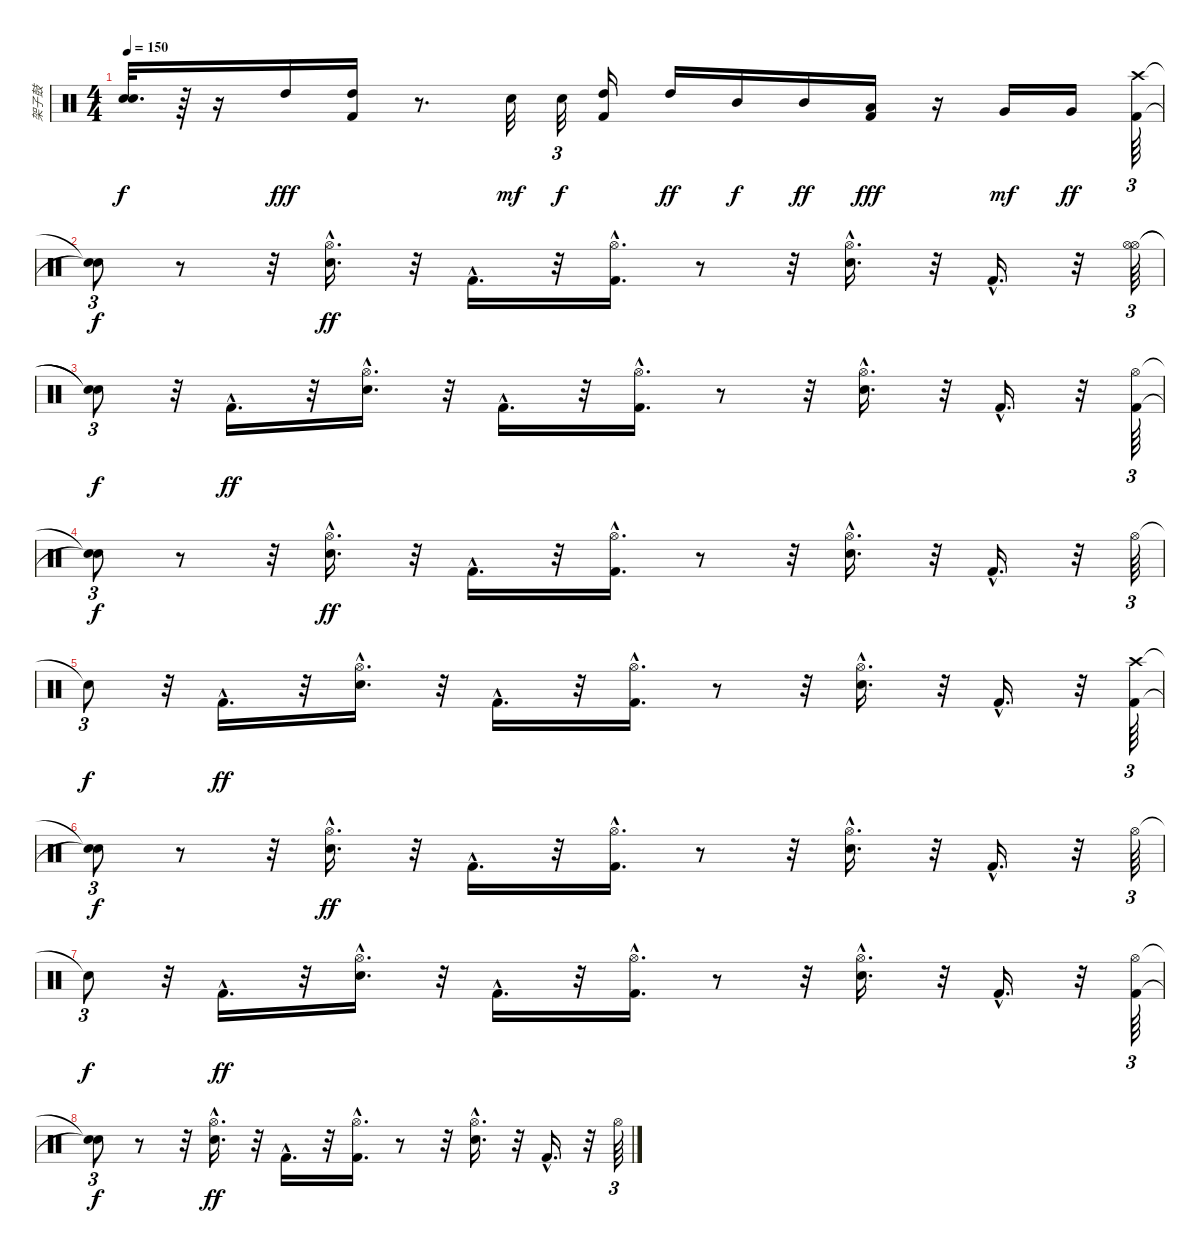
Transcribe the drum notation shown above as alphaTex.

\track ("架子鼓" "架子鼓") {instrument percussion}
\staff {score}
\articulation defaults
\ts (4 4)
\tempo 150
\clef neutral
\ks c
("Snare (hit)"{t} "Snare (hit)"{t}).32{d dy f} r.64 r.16 "High Tom (hit)".16{dy fff} ("Kick (hit) 2" "High Tom (hit)").16 r.8{d} "Snare (hit) 2".32{dy mf} "Snare (hit) 2".32{tu (3 2) dy f} ("High Tom (hit)" "Kick (hit) 2").16 "High Tom (hit)".16{dy ff} "Mid Tom (hit)".16{dy f} "Mid Tom (hit)".16{dy ff} ("Low Tom (hit)" "Kick (hit) 2").16{dy fff} r.16 "Very Low Tom (hit)".16{dy mf} "Very Low Tom (hit)".16{dy ff} ("Kick (hit) 2" "Crash high (hit)").64{tu (3 2)} |
("Snare (hit)"{t} "Snare (hit)"{t}).8{tu (3 2) dy f} r.8 r.32 ("Snare (hit) 2"{hac} "Hi-Hat (open)"{hac}).16{d dy ff} r.32 "Kick (hit) 2"{hac}.16{d} r.32 ("Kick (hit) 2"{hac} "Hi-Hat (open)"{hac}).16{d} r.8 r.32 ("Hi-Hat (open)"{hac} "Snare (hit) 2"{hac}).16{d} r.32 "Kick (hit) 2"{hac}.16{d} r.32 ("Hi-Hat (open)" "Hi-Hat (open)").64{tu (3 2)} |
("Snare (hit)"{t} "Snare (hit)"{t}).8{tu (3 2) dy f} r.32 "Kick (hit) 2"{hac}.16{d dy ff} r.32 ("Hi-Hat (open)"{hac} "Snare (hit) 2"{hac}).16{d} r.32 "Kick (hit) 2"{hac}.16{d} r.32 ("Hi-Hat (open)"{hac} "Kick (hit) 2"{hac}).16{d} r.8 r.32 ("Snare (hit) 2"{hac} "Hi-Hat (open)"{hac}).16{d} r.32 "Kick (hit) 2"{hac}.16{d} r.32 ("Hi-Hat (open)" "Kick (hit) 2").64{tu (3 2)} |
("Snare (hit)"{t} "Snare (hit)"{t}).8{tu (3 2) dy f} r.8 r.32 ("Snare (hit) 2"{hac} "Hi-Hat (open)"{hac}).16{d dy ff} r.32 "Kick (hit) 2"{hac}.16{d} r.32 ("Kick (hit) 2"{hac} "Hi-Hat (open)"{hac}).16{d} r.8 r.32 ("Snare (hit) 2"{hac} "Hi-Hat (open)"{hac}).16{d} r.32 "Kick (hit) 2"{hac}.16{d} r.32 "Hi-Hat (open)".64{tu (3 2)} |
"Snare (hit)"{t}.8{tu (3 2) dy f} r.32 "Kick (hit) 2"{hac}.16{d dy ff} r.32 ("Snare (hit) 2"{hac} "Hi-Hat (open)"{hac}).16{d} r.32 "Kick (hit) 2"{hac}.16{d} r.32 ("Kick (hit) 2"{hac} "Hi-Hat (open)"{hac}).16{d} r.8 r.32 ("Snare (hit) 2"{hac} "Hi-Hat (open)"{hac}).16{d} r.32 "Kick (hit) 2"{hac}.16{d} r.32 ("Kick (hit) 2" "Crash high (hit)").64{tu (3 2)} |
("Snare (hit)"{t} "Snare (hit)"{t}).8{tu (3 2) dy f} r.8 r.32 ("Snare (hit) 2"{hac} "Hi-Hat (open)"{hac}).16{d dy ff} r.32 "Kick (hit) 2"{hac}.16{d} r.32 ("Kick (hit) 2"{hac} "Hi-Hat (open)"{hac}).16{d} r.8 r.32 ("Hi-Hat (open)"{hac} "Snare (hit) 2"{hac}).16{d} r.32 "Kick (hit) 2"{hac}.16{d} r.32 "Hi-Hat (open)".64{tu (3 2)} |
"Snare (hit)"{t}.8{tu (3 2) dy f} r.32 "Kick (hit) 2"{hac}.16{d dy ff} r.32 ("Hi-Hat (open)"{hac} "Snare (hit) 2"{hac}).16{d} r.32 "Kick (hit) 2"{hac}.16{d} r.32 ("Hi-Hat (open)"{hac} "Kick (hit) 2"{hac}).16{d} r.8 r.32 ("Snare (hit) 2"{hac} "Hi-Hat (open)"{hac}).16{d} r.32 "Kick (hit) 2"{hac}.16{d} r.32 ("Hi-Hat (open)" "Kick (hit) 2").64{tu (3 2)} |
("Snare (hit)"{t} "Snare (hit)"{t}).8{tu (3 2) dy f} r.8 r.32 ("Snare (hit) 2"{hac} "Hi-Hat (open)"{hac}).16{d dy ff} r.32 "Kick (hit) 2"{hac}.16{d} r.32 ("Kick (hit) 2"{hac} "Hi-Hat (open)"{hac}).16{d} r.8 r.32 ("Snare (hit) 2"{hac} "Hi-Hat (open)"{hac}).16{d} r.32 "Kick (hit) 2"{hac}.16{d} r.32 "Hi-Hat (open)".64{tu (3 2)}
